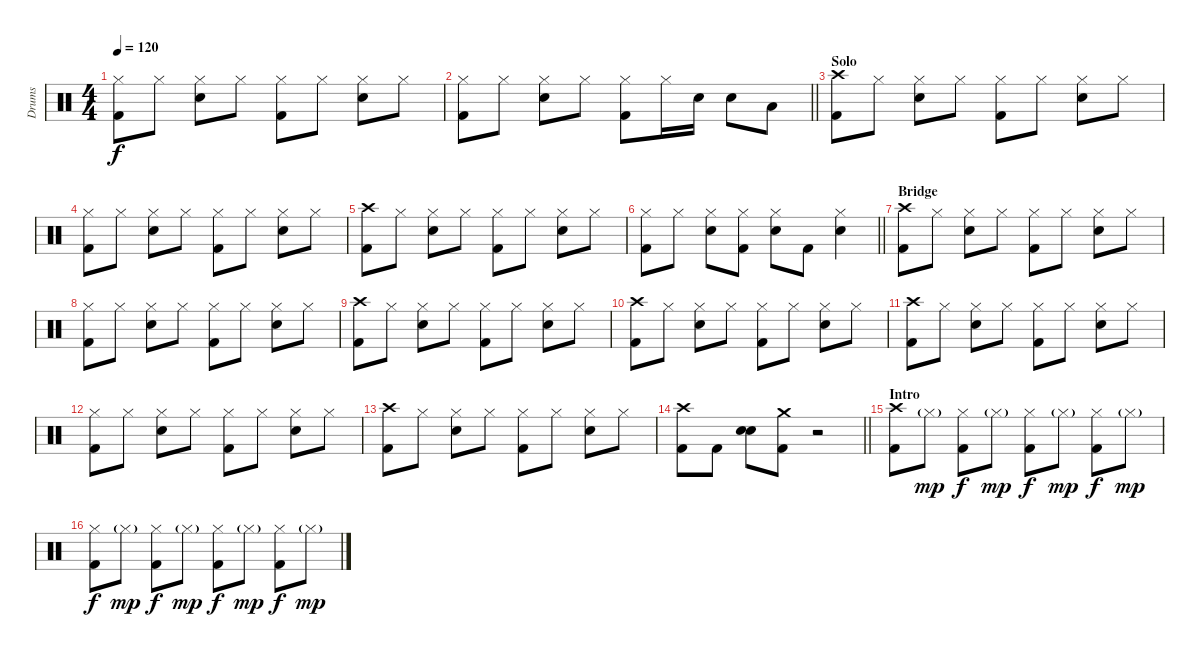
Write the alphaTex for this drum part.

\track ("Drums" "Drums") {instrument percussion}
\staff {score}
\articulation defaults
\ts (4 4)
\tempo 120
\clef neutral
\ks c
("Hi-Hat (closed)" "Kick (hit) 2").8{dy f} "Hi-Hat (closed)".8 ("Hi-Hat (closed)" "Snare (hit) 2").8 "Hi-Hat (closed)".8 ("Hi-Hat (closed)" "Kick (hit) 2").8 "Hi-Hat (closed)".8 ("Hi-Hat (closed)" "Snare (hit) 2").8 "Hi-Hat (closed)".8 |
\barLineRight lightlight
("Hi-Hat (closed)" "Kick (hit) 2").8 "Hi-Hat (closed)".8 ("Hi-Hat (closed)" "Snare (hit) 2").8 "Hi-Hat (closed)".8 ("Hi-Hat (closed)" "Kick (hit) 2").8 "Hi-Hat (closed)".16 "Snare (hit) 2".16 "Snare (hit) 2".8 "Low Tom (hit)".8 |
\section ("" "Solo")
("Crash high (hit)" "Kick (hit) 2").8 "Hi-Hat (closed)".8 ("Hi-Hat (closed)" "Snare (hit) 2").8 "Hi-Hat (closed)".8 ("Hi-Hat (closed)" "Kick (hit) 2").8 "Hi-Hat (closed)".8 ("Hi-Hat (closed)" "Snare (hit) 2").8 "Hi-Hat (closed)".8 |
("Hi-Hat (closed)" "Kick (hit) 2").8 "Hi-Hat (closed)".8 ("Hi-Hat (closed)" "Snare (hit) 2").8 "Hi-Hat (closed)".8 ("Hi-Hat (closed)" "Kick (hit) 2").8 "Hi-Hat (closed)".8 ("Hi-Hat (closed)" "Snare (hit) 2").8 "Hi-Hat (closed)".8 |
("Crash high (hit)" "Kick (hit) 2").8 "Hi-Hat (closed)".8 ("Hi-Hat (closed)" "Snare (hit) 2").8 "Hi-Hat (closed)".8 ("Hi-Hat (closed)" "Kick (hit) 2").8 "Hi-Hat (closed)".8 ("Hi-Hat (closed)" "Snare (hit) 2").8 "Hi-Hat (closed)".8 |
\barLineRight lightlight
("Hi-Hat (closed)" "Kick (hit) 2").8 "Hi-Hat (closed)".8 ("Hi-Hat (closed)" "Snare (hit) 2").8 ("Hi-Hat (closed)" "Kick (hit) 2").8 ("Hi-Hat (closed)" "Snare (hit) 2").8 "Kick (hit) 2".8 ("Hi-Hat (closed)" "Snare (hit) 2").4 |
\section ("" "Bridge")
("Crash high (hit)" "Kick (hit) 2").8{volume 11} "Hi-Hat (closed)".8 ("Hi-Hat (closed)" "Snare (hit) 2").8 "Hi-Hat (closed)".8 ("Hi-Hat (closed)" "Kick (hit) 2").8 "Hi-Hat (closed)".8 ("Hi-Hat (closed)" "Snare (hit) 2").8 "Hi-Hat (closed)".8 |
("Hi-Hat (closed)" "Kick (hit) 2").8 "Hi-Hat (closed)".8 ("Hi-Hat (closed)" "Snare (hit) 2").8 "Hi-Hat (closed)".8 ("Hi-Hat (closed)" "Kick (hit) 2").8 "Hi-Hat (closed)".8 ("Hi-Hat (closed)" "Snare (hit) 2").8 "Hi-Hat (closed)".8 |
("Crash high (hit)" "Kick (hit) 2").8 "Hi-Hat (closed)".8 ("Hi-Hat (closed)" "Snare (hit) 2").8 "Hi-Hat (closed)".8 ("Hi-Hat (closed)" "Kick (hit) 2").8 "Hi-Hat (closed)".8 ("Hi-Hat (closed)" "Snare (hit) 2").8 "Hi-Hat (closed)".8 |
("Crash high (hit)" "Kick (hit) 2").8 "Hi-Hat (closed)".8 ("Hi-Hat (closed)" "Snare (hit) 2").8 "Hi-Hat (closed)".8 ("Hi-Hat (closed)" "Kick (hit) 2").8 "Hi-Hat (closed)".8 ("Hi-Hat (closed)" "Snare (hit) 2").8 "Hi-Hat (closed)".8 |
("Crash high (hit)" "Kick (hit) 2").8 "Hi-Hat (closed)".8 ("Hi-Hat (closed)" "Snare (hit) 2").8 "Hi-Hat (closed)".8 ("Hi-Hat (closed)" "Kick (hit) 2").8 "Hi-Hat (closed)".8 ("Hi-Hat (closed)" "Snare (hit) 2").8 "Hi-Hat (closed)".8 |
("Hi-Hat (closed)" "Kick (hit) 2").8 "Hi-Hat (closed)".8 ("Hi-Hat (closed)" "Snare (hit) 2").8 "Hi-Hat (closed)".8 ("Hi-Hat (closed)" "Kick (hit) 2").8 "Hi-Hat (closed)".8 ("Hi-Hat (closed)" "Snare (hit) 2").8 "Hi-Hat (closed)".8 |
("Crash high (hit)" "Kick (hit) 2").8 "Hi-Hat (closed)".8 ("Hi-Hat (closed)" "Snare (hit) 2").8 "Hi-Hat (closed)".8 ("Hi-Hat (closed)" "Kick (hit) 2").8 "Hi-Hat (closed)".8 ("Hi-Hat (closed)" "Snare (hit) 2").8 "Hi-Hat (closed)".8 |
\barLineRight lightlight
("Crash high (hit)" "Kick (hit) 2").8 "Kick (hit) 2".8 ("Snare (hit) 2" "Snare (hit) 2").8 ("Crash medium (hit)" "Kick (hit) 2").8 r.2 |
\section ("" "Intro")
("Crash high (hit)" "Kick (hit) 2").8 "Hi-Hat (closed)"{g}.8{dy mp} ("Hi-Hat (closed)" "Kick (hit) 2").8{dy f} "Hi-Hat (closed)"{g}.8{dy mp} ("Hi-Hat (closed)" "Kick (hit) 2").8{dy f} "Hi-Hat (closed)"{g}.8{dy mp} ("Hi-Hat (closed)" "Kick (hit) 2").8{dy f} "Hi-Hat (closed)"{g}.8{dy mp} |
("Hi-Hat (closed)" "Kick (hit) 2").8{dy f} "Hi-Hat (closed)"{g}.8{dy mp} ("Hi-Hat (closed)" "Kick (hit) 2").8{dy f} "Hi-Hat (closed)"{g}.8{dy mp} ("Hi-Hat (closed)" "Kick (hit) 2").8{dy f} "Hi-Hat (closed)"{g}.8{dy mp} ("Hi-Hat (closed)" "Kick (hit) 2").8{dy f} "Hi-Hat (closed)"{g}.8{dy mp}
